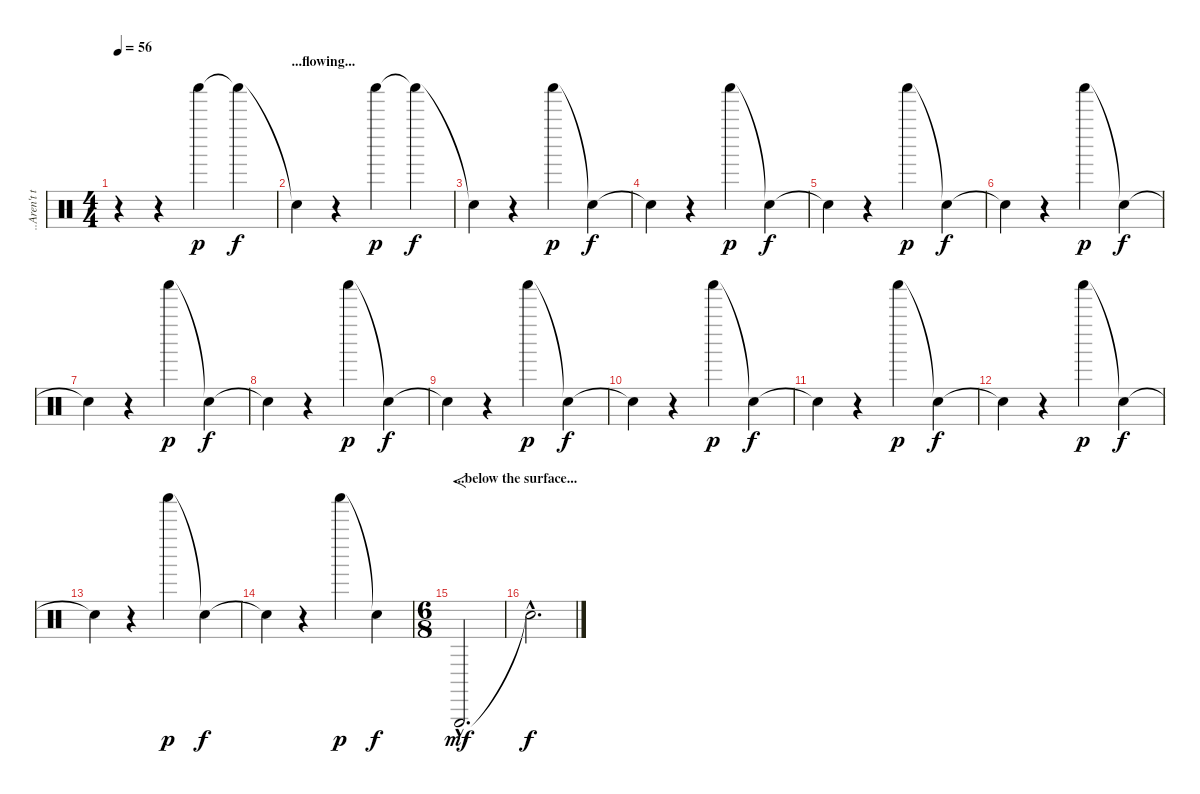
\track ("..Aren't they?.." "..Aren't t") {instrument percussion}
\staff {score}
\articulation defaults
\ts (4 4)
\tempo 56
\clef neutral
\ks c
r.4{dy p} r.4 "Shaker (hit)".4 "Shaker (hit)"{t}.4{dy f} |
\section ("" "...flowing...")
"Snare (hit)"{t}.4 r.4 "Shaker (hit)".4{dy p} "Shaker (hit)"{t}.4{dy f} |
"Snare (hit)"{t}.4 r.4 "Shaker (hit)".4{dy p} "Snare (hit)"{t}.4{dy f} |
"Snare (hit)"{t}.4 r.4 "Shaker (hit)".4{dy p} "Snare (hit)"{t}.4{dy f} |
"Snare (hit)"{t}.4 r.4 "Shaker (hit)".4{dy p} "Snare (hit)"{t}.4{dy f} |
"Snare (hit)"{t}.4 r.4 "Shaker (hit)".4{dy p} "Snare (hit)"{t}.4{dy f} |
"Snare (hit)"{t}.4 r.4 "Shaker (hit)".4{dy p} "Snare (hit)"{t}.4{dy f} |
"Snare (hit)"{t}.4 r.4 "Shaker (hit)".4{dy p} "Snare (hit)"{t}.4{dy f} |
"Snare (hit)"{t}.4 r.4 "Shaker (hit)".4{dy p} "Snare (hit)"{t}.4{dy f} |
"Snare (hit)"{t}.4 r.4 "Shaker (hit)".4{dy p} "Snare (hit)"{t}.4{dy f} |
"Snare (hit)"{t}.4 r.4 "Shaker (hit)".4{dy p} "Snare (hit)"{t}.4{dy f} |
"Snare (hit)"{t}.4 r.4 "Shaker (hit)".4{dy p} "Snare (hit)"{t}.4{dy f} |
"Snare (hit)"{t}.4 r.4 "Shaker (hit)".4{dy p} "Snare (hit)"{t}.4{dy f} |
"Snare (hit)"{t}.4 r.4 "Shaker (hit)".4{dy p} "Snare (hit)"{t}.4{dy f} |
\ts (6 8)
\section ("" "...below the surface...")
"Triangle (hit)"{hac}.2{f d dy mf} |
"Snare (hit)"{hac t}.2{d dy f}
